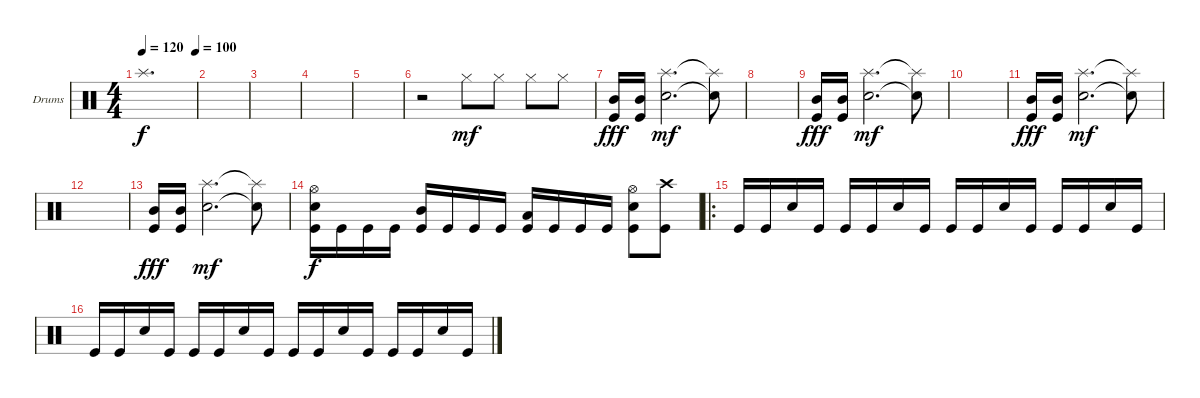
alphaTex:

\defaultSystemsLayout 4
\bracketExtendMode groupsimilarinstruments
\firstSystemTrackNameOrientation horizontal
\otherSystemsTrackNameOrientation horizontal
\track ("Drumkit" "Drums") {instrument percussion}
\staff {score}
\articulation defaults
\ts (4 4)
\tempo 120
\tempo (100 0.99375)
\clef neutral
\ks c "Splash (hit)".1{d dy f}
|
|
|
|
|
r.2 "Hi-Hat (closed)".8{dy mf} "Hi-Hat (closed)".8 "Hi-Hat (closed)".8 "Hi-Hat (closed)".8 |
("Kick (hit)" "Mid Tom (hit)").16{dy fff} ("Kick (hit)" "Mid Tom (hit)").16 ("Snare (hit) 2" "Splash (hit)").2{d dy mf} ("Snare (hit) 2"{t} "Splash (hit)"{t}).8 |
|
("Kick (hit)" "Mid Tom (hit)").16{dy fff} ("Kick (hit)" "Mid Tom (hit)").16 ("Snare (hit) 2" "Splash (hit)").2{d dy mf} ("Snare (hit) 2"{t} "Splash (hit)"{t}).8 |
|
("Kick (hit)" "Mid Tom (hit)").16{dy fff} ("Kick (hit)" "Mid Tom (hit)").16 ("Snare (hit) 2" "Splash (hit)").2{d dy mf} ("Snare (hit) 2"{t} "Splash (hit)"{t}).8 |
|
("Kick (hit)" "Mid Tom (hit)").16{dy fff} ("Kick (hit)" "Mid Tom (hit)").16 ("Snare (hit) 2" "Splash (hit)").2{d dy mf} ("Snare (hit) 2"{t} "Splash (hit)"{t}).8 |
("Hi-Hat (open)" "Snare (hit) 2" "Kick (hit)").16{dy f} "Kick (hit)".16 "Kick (hit)".16 "Kick (hit)".16 ("Mid Tom (hit)" "Kick (hit)").16 "Kick (hit)".16 "Kick (hit)".16 "Kick (hit)".16 ("Low Tom (hit)" "Kick (hit)").16 "Kick (hit)".16 "Kick (hit)".16 "Kick (hit)".16 ("Hi-Hat (open)" "Snare (hit) 2" "Kick (hit)").8 ("Crash high (hit)" "Kick (hit)").8 |
\ro "Kick (hit)".16 "Kick (hit)".16 "Snare (hit) 2".16 "Kick (hit)".16 "Kick (hit)".16 "Kick (hit)".16 "Snare (hit) 2".16 "Kick (hit)".16 "Kick (hit)".16 "Kick (hit)".16 "Snare (hit) 2".16 "Kick (hit)".16 "Kick (hit)".16 "Kick (hit)".16 "Snare (hit) 2".16 "Kick (hit)".16
|
"Kick (hit)".16 "Kick (hit)".16 "Snare (hit) 2".16 "Kick (hit)".16 "Kick (hit)".16 "Kick (hit)".16 "Snare (hit) 2".16 "Kick (hit)".16 "Kick (hit)".16 "Kick (hit)".16 "Snare (hit) 2".16 "Kick (hit)".16 "Kick (hit)".16 "Kick (hit)".16 "Snare (hit) 2".16 "Kick (hit)".16
